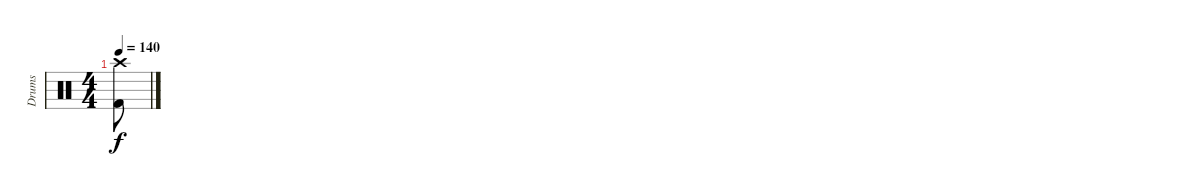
\track ("Drums" "Drums") {instrument percussion}
\staff {score}
\articulation defaults
\ts (4 4)
\tempo 140
\clef neutral
\ks c
("Crash high (hit)" "Kick (hit) 2").8{dy f}
